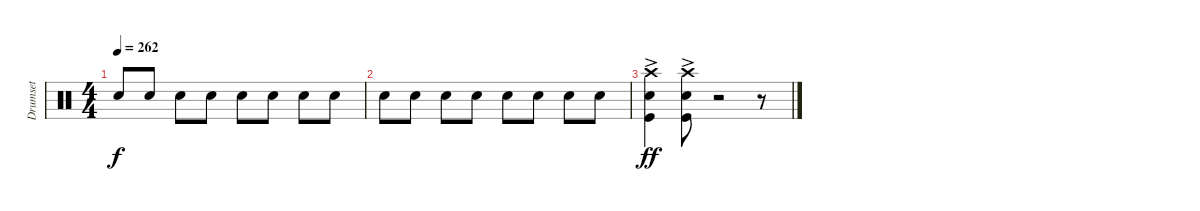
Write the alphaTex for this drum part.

\track ("Drumset" "Drumset") {instrument percussion}
\staff {score}
\articulation defaults
\ts (4 4)
\tempo 262
\clef neutral
\ks c "Snare (hit) 2".8{dy f beam Up} "Snare (hit) 2".8 "Snare (hit) 2".8 "Snare (hit) 2".8 "Snare (hit) 2".8 "Snare (hit) 2".8 "Snare (hit) 2".8 "Snare (hit) 2".8
|
"Snare (hit) 2".8 "Snare (hit) 2".8 "Snare (hit) 2".8 "Snare (hit) 2".8 "Snare (hit) 2".8 "Snare (hit) 2".8 "Snare (hit) 2".8 "Snare (hit) 2".8 |
("Snare (hit) 2"{ac} "Kick (hit)"{ac} "Crash high (hit)"{ac}).4{dy ff} ("Snare (hit) 2"{ac} "Kick (hit)"{ac} "Crash high (hit)"{ac}).8 r.2 r.8
